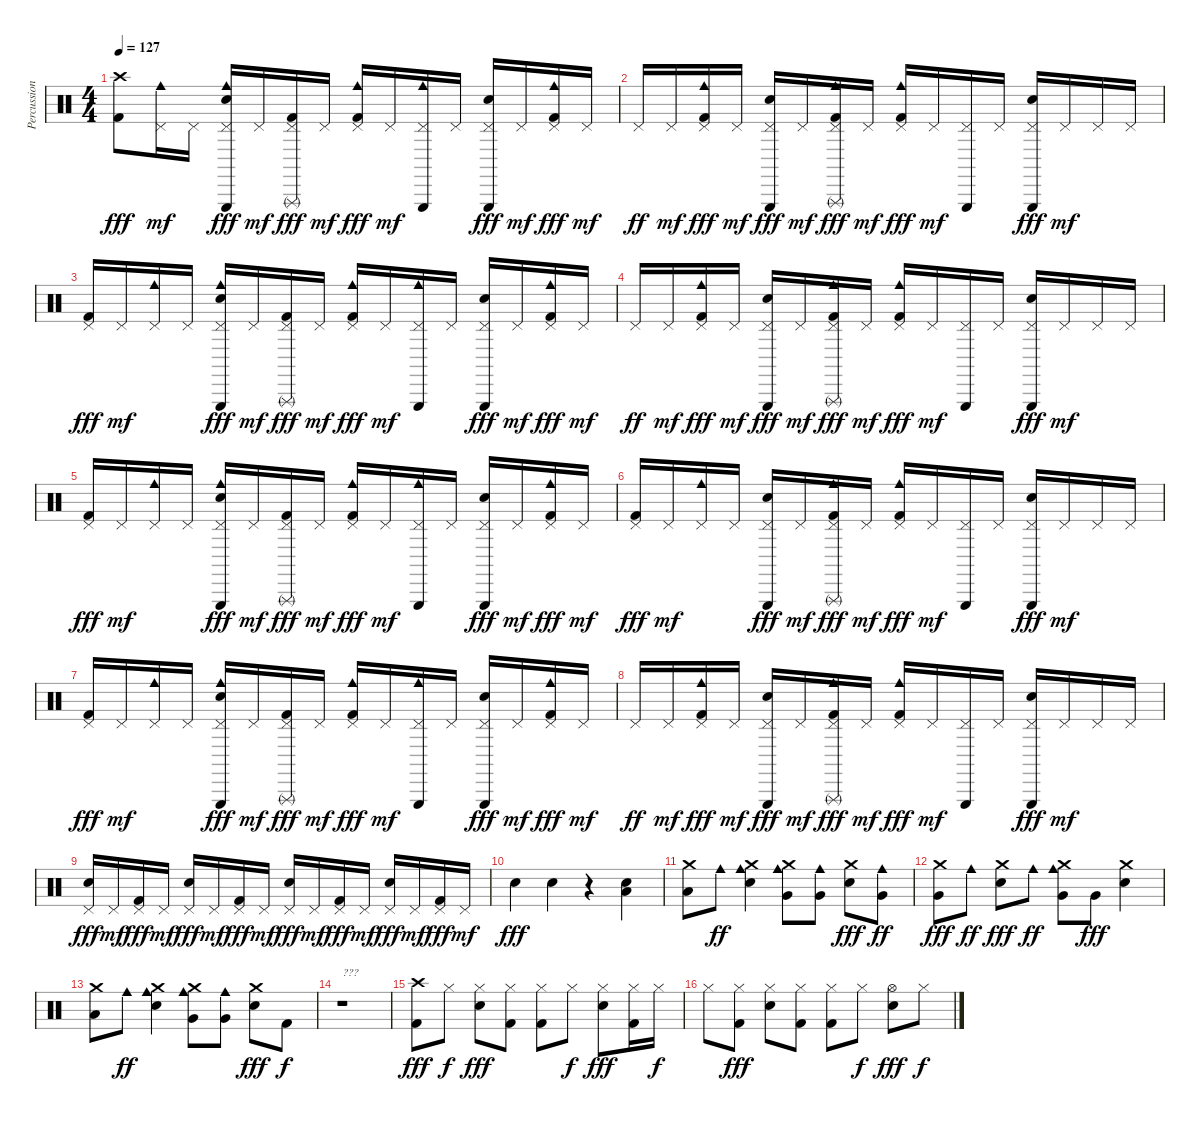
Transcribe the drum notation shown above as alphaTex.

\track ("Percussion" "Percussion") {instrument percussion}
\staff {score}
\articulation defaults
\ts (4 4)
\tempo 127
\clef neutral
\ks c
("Crash high (hit)" "Kick (hit) 2").8{dy fff} ("Pedal Hi-Hat (hit)" "Cowbell medium (hit)").16{dy mf} "Pedal Hi-Hat (hit)".16 ("Pedal Hi-Hat (hit)" "Triangle (hit)" "Electric Snare (hit)" "Cowbell medium (hit)").16{dy fff} "Pedal Hi-Hat (hit)".16{dy mf} ("Pedal Hi-Hat (hit)" "Triangle (rnute)" "Kick (hit) 2").16{dy fff} "Pedal Hi-Hat (hit)".16{dy mf} ("Pedal Hi-Hat (hit)" "Cowbell medium (hit)" "Kick (hit) 2").16{dy fff} "Pedal Hi-Hat (hit)".16{dy mf} ("Pedal Hi-Hat (hit)" "Triangle (hit)" "Cowbell medium (hit)").16 "Pedal Hi-Hat (hit)".16 ("Pedal Hi-Hat (hit)" "Triangle (hit)" "Electric Snare (hit)").16{dy fff} "Pedal Hi-Hat (hit)".16{dy mf} ("Pedal Hi-Hat (hit)" "Cowbell medium (hit)" "Kick (hit) 2").16{dy fff} "Pedal Hi-Hat (hit)".16{dy mf} |
"Pedal Hi-Hat (hit)".16{dy ff} "Pedal Hi-Hat (hit)".16{dy mf} ("Pedal Hi-Hat (hit)" "Cowbell medium (hit)" "Kick (hit) 2").16{dy fff} "Pedal Hi-Hat (hit)".16{dy mf} ("Pedal Hi-Hat (hit)" "Triangle (hit)" "Electric Snare (hit)").16{dy fff} "Pedal Hi-Hat (hit)".16{dy mf} ("Pedal Hi-Hat (hit)" "Triangle (rnute)" "Cowbell medium (hit)" "Kick (hit) 2").16{dy fff} "Pedal Hi-Hat (hit)".16{dy mf} ("Pedal Hi-Hat (hit)" "Cowbell medium (hit)" "Kick (hit) 2").16{dy fff} "Pedal Hi-Hat (hit)".16{dy mf} ("Pedal Hi-Hat (hit)" "Triangle (hit)").16 "Pedal Hi-Hat (hit)".16 ("Pedal Hi-Hat (hit)" "Triangle (hit)" "Electric Snare (hit)").16{dy fff} "Pedal Hi-Hat (hit)".16{dy mf} "Pedal Hi-Hat (hit)".16 "Pedal Hi-Hat (hit)".16 |
("Pedal Hi-Hat (hit)" "Kick (hit) 2").16{dy fff} "Pedal Hi-Hat (hit)".16{dy mf} ("Pedal Hi-Hat (hit)" "Cowbell medium (hit)").16 "Pedal Hi-Hat (hit)".16 ("Pedal Hi-Hat (hit)" "Triangle (hit)" "Electric Snare (hit)" "Cowbell medium (hit)").16{dy fff} "Pedal Hi-Hat (hit)".16{dy mf} ("Pedal Hi-Hat (hit)" "Triangle (rnute)" "Kick (hit) 2").16{dy fff} "Pedal Hi-Hat (hit)".16{dy mf} ("Pedal Hi-Hat (hit)" "Cowbell medium (hit)" "Kick (hit) 2").16{dy fff} "Pedal Hi-Hat (hit)".16{dy mf} ("Pedal Hi-Hat (hit)" "Triangle (hit)" "Cowbell medium (hit)").16 "Pedal Hi-Hat (hit)".16 ("Pedal Hi-Hat (hit)" "Triangle (hit)" "Electric Snare (hit)").16{dy fff} "Pedal Hi-Hat (hit)".16{dy mf} ("Pedal Hi-Hat (hit)" "Cowbell medium (hit)" "Kick (hit) 2").16{dy fff} "Pedal Hi-Hat (hit)".16{dy mf} |
"Pedal Hi-Hat (hit)".16{dy ff} "Pedal Hi-Hat (hit)".16{dy mf} ("Pedal Hi-Hat (hit)" "Cowbell medium (hit)" "Kick (hit) 2").16{dy fff} "Pedal Hi-Hat (hit)".16{dy mf} ("Pedal Hi-Hat (hit)" "Triangle (hit)" "Electric Snare (hit)").16{dy fff} "Pedal Hi-Hat (hit)".16{dy mf} ("Pedal Hi-Hat (hit)" "Triangle (rnute)" "Cowbell medium (hit)" "Kick (hit) 2").16{dy fff} "Pedal Hi-Hat (hit)".16{dy mf} ("Pedal Hi-Hat (hit)" "Cowbell medium (hit)" "Kick (hit) 2").16{dy fff} "Pedal Hi-Hat (hit)".16{dy mf} ("Pedal Hi-Hat (hit)" "Triangle (hit)").16 "Pedal Hi-Hat (hit)".16 ("Pedal Hi-Hat (hit)" "Triangle (hit)" "Electric Snare (hit)").16{dy fff} "Pedal Hi-Hat (hit)".16{dy mf} "Pedal Hi-Hat (hit)".16 "Pedal Hi-Hat (hit)".16 |
("Pedal Hi-Hat (hit)" "Kick (hit) 2").16{dy fff} "Pedal Hi-Hat (hit)".16{dy mf} ("Pedal Hi-Hat (hit)" "Cowbell medium (hit)").16 "Pedal Hi-Hat (hit)".16 ("Pedal Hi-Hat (hit)" "Triangle (hit)" "Electric Snare (hit)" "Cowbell medium (hit)").16{dy fff} "Pedal Hi-Hat (hit)".16{dy mf} ("Pedal Hi-Hat (hit)" "Triangle (rnute)" "Kick (hit) 2").16{dy fff} "Pedal Hi-Hat (hit)".16{dy mf} ("Pedal Hi-Hat (hit)" "Cowbell medium (hit)" "Kick (hit) 2").16{dy fff} "Pedal Hi-Hat (hit)".16{dy mf} ("Pedal Hi-Hat (hit)" "Triangle (hit)" "Cowbell medium (hit)").16 "Pedal Hi-Hat (hit)".16 ("Pedal Hi-Hat (hit)" "Triangle (hit)" "Electric Snare (hit)").16{dy fff} "Pedal Hi-Hat (hit)".16{dy mf} ("Pedal Hi-Hat (hit)" "Cowbell medium (hit)" "Kick (hit) 2").16{dy fff} "Pedal Hi-Hat (hit)".16{dy mf} |
("Pedal Hi-Hat (hit)" "Kick (hit) 2").16{dy fff} "Pedal Hi-Hat (hit)".16{dy mf} ("Pedal Hi-Hat (hit)" "Cowbell medium (hit)").16 "Pedal Hi-Hat (hit)".16 ("Pedal Hi-Hat (hit)" "Triangle (hit)" "Electric Snare (hit)").16{dy fff} "Pedal Hi-Hat (hit)".16{dy mf} ("Pedal Hi-Hat (hit)" "Triangle (rnute)" "Cowbell medium (hit)" "Kick (hit) 2").16{dy fff} "Pedal Hi-Hat (hit)".16{dy mf} ("Pedal Hi-Hat (hit)" "Cowbell medium (hit)" "Kick (hit) 2").16{dy fff} "Pedal Hi-Hat (hit)".16{dy mf} ("Pedal Hi-Hat (hit)" "Triangle (hit)").16 "Pedal Hi-Hat (hit)".16 ("Pedal Hi-Hat (hit)" "Triangle (hit)" "Electric Snare (hit)").16{dy fff} "Pedal Hi-Hat (hit)".16{dy mf} "Pedal Hi-Hat (hit)".16 "Pedal Hi-Hat (hit)".16 |
("Pedal Hi-Hat (hit)" "Kick (hit) 2").16{dy fff} "Pedal Hi-Hat (hit)".16{dy mf} ("Pedal Hi-Hat (hit)" "Cowbell medium (hit)").16 "Pedal Hi-Hat (hit)".16 ("Pedal Hi-Hat (hit)" "Triangle (hit)" "Electric Snare (hit)" "Cowbell medium (hit)").16{dy fff} "Pedal Hi-Hat (hit)".16{dy mf} ("Pedal Hi-Hat (hit)" "Triangle (rnute)" "Kick (hit) 2").16{dy fff} "Pedal Hi-Hat (hit)".16{dy mf} ("Pedal Hi-Hat (hit)" "Cowbell medium (hit)" "Kick (hit) 2").16{dy fff} "Pedal Hi-Hat (hit)".16{dy mf} ("Pedal Hi-Hat (hit)" "Triangle (hit)" "Cowbell medium (hit)").16 "Pedal Hi-Hat (hit)".16 ("Pedal Hi-Hat (hit)" "Triangle (hit)" "Electric Snare (hit)").16{dy fff} "Pedal Hi-Hat (hit)".16{dy mf} ("Pedal Hi-Hat (hit)" "Cowbell medium (hit)" "Kick (hit) 2").16{dy fff} "Pedal Hi-Hat (hit)".16{dy mf} |
"Pedal Hi-Hat (hit)".16{dy ff} "Pedal Hi-Hat (hit)".16{dy mf} ("Pedal Hi-Hat (hit)" "Cowbell medium (hit)" "Kick (hit) 2").16{dy fff} "Pedal Hi-Hat (hit)".16{dy mf} ("Pedal Hi-Hat (hit)" "Triangle (hit)" "Electric Snare (hit)").16{dy fff} "Pedal Hi-Hat (hit)".16{dy mf} ("Pedal Hi-Hat (hit)" "Triangle (rnute)" "Cowbell medium (hit)" "Kick (hit) 2").16{dy fff} "Pedal Hi-Hat (hit)".16{dy mf} ("Pedal Hi-Hat (hit)" "Cowbell medium (hit)" "Kick (hit) 2").16{dy fff} "Pedal Hi-Hat (hit)".16{dy mf} ("Pedal Hi-Hat (hit)" "Triangle (hit)").16 "Pedal Hi-Hat (hit)".16 ("Pedal Hi-Hat (hit)" "Triangle (hit)" "Electric Snare (hit)").16{dy fff} "Pedal Hi-Hat (hit)".16{dy mf} "Pedal Hi-Hat (hit)".16 "Pedal Hi-Hat (hit)".16 |
("Pedal Hi-Hat (hit)" "Electric Snare (hit)").16{dy fff} "Pedal Hi-Hat (hit)".16{dy mf} ("Pedal Hi-Hat (hit)" "Kick (hit) 2").16{dy fff} "Pedal Hi-Hat (hit)".16{dy mf} ("Pedal Hi-Hat (hit)" "Electric Snare (hit)").16{dy fff} "Pedal Hi-Hat (hit)".16{dy mf} ("Pedal Hi-Hat (hit)" "Kick (hit) 2").16{dy fff} "Pedal Hi-Hat (hit)".16{dy mf} ("Pedal Hi-Hat (hit)" "Electric Snare (hit)").16{dy fff} "Pedal Hi-Hat (hit)".16{dy mf} ("Pedal Hi-Hat (hit)" "Kick (hit) 2").16{dy fff} "Pedal Hi-Hat (hit)".16{dy mf} ("Pedal Hi-Hat (hit)" "Electric Snare (hit)").16{dy fff} "Pedal Hi-Hat (hit)".16{dy mf} ("Pedal Hi-Hat (hit)" "Kick (hit) 2").16{dy fff} "Pedal Hi-Hat (hit)".16{dy mf} |
"Electric Snare (hit)".4{dy fff} "Electric Snare (hit)".4 r.4 ("Electric Snare (hit)" "Low Tom (hit)").4 |
("Crash medium (hit)" "Low Tom (hit)").8 "Cowbell medium (hit)".8{dy ff} ("Crash medium (hit)" "Electric Snare (hit)" "Cowbell medium (hit)").4 ("Crash medium (hit)" "Very Low Tom (hit)" "Cowbell medium (hit)").8 ("Very Low Tom (hit)" "Cowbell medium (hit)").8 ("Crash medium (hit)" "Electric Snare (hit)").8{dy fff} ("Very Low Tom (hit)" "Cowbell medium (hit)").8{dy ff} |
("Crash medium (hit)" "Very Low Tom (hit)").8{dy fff} "Cowbell medium (hit)".8{dy ff} ("Crash medium (hit)" "Electric Snare (hit)").8{dy fff} "Cowbell medium (hit)".8{dy ff} ("Crash medium (hit)" "Very Low Tom (hit)" "Cowbell medium (hit)").8 "Very Low Tom (hit)".8{dy fff} ("Crash medium (hit)" "Electric Snare (hit)").4 |
("Crash medium (hit)" "Low Tom (hit)").8 "Cowbell medium (hit)".8{dy ff} ("Crash medium (hit)" "Electric Snare (hit)" "Cowbell medium (hit)").4 ("Crash medium (hit)" "Very Low Tom (hit)" "Cowbell medium (hit)").8 ("Very Low Tom (hit)" "Cowbell medium (hit)").8 ("Crash medium (hit)" "Electric Snare (hit)").8{dy fff} "Kick (hit) 2".8{dy f} |
r.1{txt "???"} |
("Crash high (hit)" "Kick (hit) 2").8{dy fff} "Hi-Hat (closed)".8{dy f} ("Hi-Hat (closed)" "Electric Snare (hit)").8{dy fff} ("Hi-Hat (closed)" "Kick (hit) 2").8 ("Hi-Hat (closed)" "Kick (hit) 2").8 "Hi-Hat (closed)".8{dy f} ("Hi-Hat (closed)" "Electric Snare (hit)").8{dy fff} ("Hi-Hat (closed)" "Kick (hit) 2").16 "Hi-Hat (closed)".16{dy f} |
"Hi-Hat (closed)".8 ("Hi-Hat (closed)" "Kick (hit) 2").8{dy fff} ("Hi-Hat (closed)" "Electric Snare (hit)").8 ("Hi-Hat (closed)" "Kick (hit) 2").8 ("Hi-Hat (closed)" "Kick (hit) 2").8 "Hi-Hat (closed)".8{dy f} ("Hi-Hat (open)" "Electric Snare (hit)").8{dy fff} "Hi-Hat (closed)".8{dy f}
